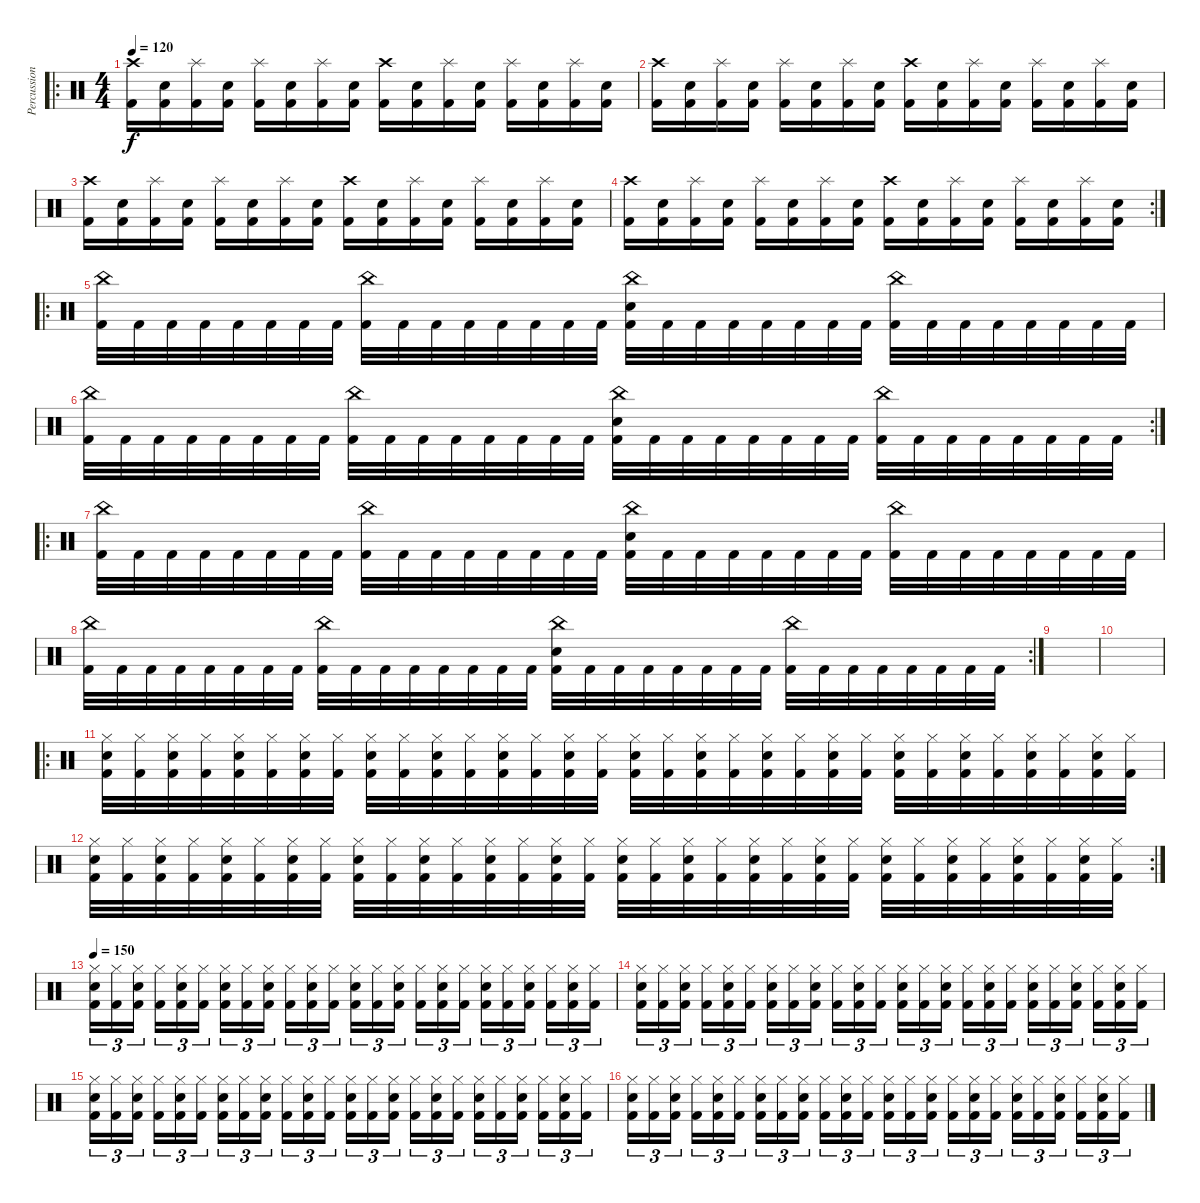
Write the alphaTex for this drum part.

\track ("Percussions" "Percussion") {instrument percussion}
\staff {score}
\articulation defaults
\ro
\ts (4 4)
\tempo 120
\clef neutral
\ks c
("Crash high (hit)" "Kick (hit) 2").16{dy f} ("Electric Snare (hit)" "Kick (hit) 2").16 ("Splash (hit)" "Kick (hit) 2").16 ("Electric Snare (hit)" "Kick (hit) 2").16 ("Splash (hit)" "Kick (hit) 2").16 ("Electric Snare (hit)" "Kick (hit) 2").16 ("Splash (hit)" "Kick (hit) 2").16 ("Electric Snare (hit)" "Kick (hit) 2").16 ("Crash high (hit)" "Kick (hit) 2").16 ("Electric Snare (hit)" "Kick (hit) 2").16 ("Splash (hit)" "Kick (hit) 2").16 ("Electric Snare (hit)" "Kick (hit) 2").16 ("Splash (hit)" "Kick (hit) 2").16 ("Electric Snare (hit)" "Kick (hit) 2").16 ("Splash (hit)" "Kick (hit) 2").16 ("Electric Snare (hit)" "Kick (hit) 2").16 |
("Crash high (hit)" "Kick (hit) 2").16 ("Electric Snare (hit)" "Kick (hit) 2").16 ("Splash (hit)" "Kick (hit) 2").16 ("Electric Snare (hit)" "Kick (hit) 2").16 ("Splash (hit)" "Kick (hit) 2").16 ("Electric Snare (hit)" "Kick (hit) 2").16 ("Splash (hit)" "Kick (hit) 2").16 ("Electric Snare (hit)" "Kick (hit) 2").16 ("Crash high (hit)" "Kick (hit) 2").16 ("Electric Snare (hit)" "Kick (hit) 2").16 ("Splash (hit)" "Kick (hit) 2").16 ("Electric Snare (hit)" "Kick (hit) 2").16 ("Splash (hit)" "Kick (hit) 2").16 ("Electric Snare (hit)" "Kick (hit) 2").16 ("Splash (hit)" "Kick (hit) 2").16 ("Electric Snare (hit)" "Kick (hit) 2").16 |
("Crash high (hit)" "Kick (hit) 2").16 ("Electric Snare (hit)" "Kick (hit) 2").16 ("Splash (hit)" "Kick (hit) 2").16 ("Electric Snare (hit)" "Kick (hit) 2").16 ("Splash (hit)" "Kick (hit) 2").16 ("Electric Snare (hit)" "Kick (hit) 2").16 ("Splash (hit)" "Kick (hit) 2").16 ("Electric Snare (hit)" "Kick (hit) 2").16 ("Crash high (hit)" "Kick (hit) 2").16 ("Electric Snare (hit)" "Kick (hit) 2").16 ("Splash (hit)" "Kick (hit) 2").16 ("Electric Snare (hit)" "Kick (hit) 2").16 ("Splash (hit)" "Kick (hit) 2").16 ("Electric Snare (hit)" "Kick (hit) 2").16 ("Splash (hit)" "Kick (hit) 2").16 ("Electric Snare (hit)" "Kick (hit) 2").16 |
\rc 2
("Crash high (hit)" "Kick (hit) 2").16 ("Electric Snare (hit)" "Kick (hit) 2").16 ("Splash (hit)" "Kick (hit) 2").16 ("Electric Snare (hit)" "Kick (hit) 2").16 ("Splash (hit)" "Kick (hit) 2").16 ("Electric Snare (hit)" "Kick (hit) 2").16 ("Splash (hit)" "Kick (hit) 2").16 ("Electric Snare (hit)" "Kick (hit) 2").16 ("Crash high (hit)" "Kick (hit) 2").16 ("Electric Snare (hit)" "Kick (hit) 2").16 ("Splash (hit)" "Kick (hit) 2").16 ("Electric Snare (hit)" "Kick (hit) 2").16 ("Splash (hit)" "Kick (hit) 2").16 ("Electric Snare (hit)" "Kick (hit) 2").16 ("Splash (hit)" "Kick (hit) 2").16 ("Electric Snare (hit)" "Kick (hit) 2").16 |
\ro
("China (hit)" "Kick (hit) 2").32 "Kick (hit) 2".32 "Kick (hit) 2".32 "Kick (hit) 2".32 "Kick (hit) 2".32 "Kick (hit) 2".32 "Kick (hit) 2".32 "Kick (hit) 2".32 ("China (hit)" "Kick (hit) 2").32 "Kick (hit) 2".32 "Kick (hit) 2".32 "Kick (hit) 2".32 "Kick (hit) 2".32 "Kick (hit) 2".32 "Kick (hit) 2".32 "Kick (hit) 2".32 ("China (hit)" "Electric Snare (hit)" "Kick (hit) 2").32 "Kick (hit) 2".32 "Kick (hit) 2".32 "Kick (hit) 2".32 "Kick (hit) 2".32 "Kick (hit) 2".32 "Kick (hit) 2".32 "Kick (hit) 2".32 ("China (hit)" "Kick (hit) 2").32 "Kick (hit) 2".32 "Kick (hit) 2".32 "Kick (hit) 2".32 "Kick (hit) 2".32 "Kick (hit) 2".32 "Kick (hit) 2".32 "Kick (hit) 2".32 |
\rc 2
("China (hit)" "Kick (hit) 2").32 "Kick (hit) 2".32 "Kick (hit) 2".32 "Kick (hit) 2".32 "Kick (hit) 2".32 "Kick (hit) 2".32 "Kick (hit) 2".32 "Kick (hit) 2".32 ("China (hit)" "Kick (hit) 2").32 "Kick (hit) 2".32 "Kick (hit) 2".32 "Kick (hit) 2".32 "Kick (hit) 2".32 "Kick (hit) 2".32 "Kick (hit) 2".32 "Kick (hit) 2".32 ("China (hit)" "Electric Snare (hit)" "Kick (hit) 2").32 "Kick (hit) 2".32 "Kick (hit) 2".32 "Kick (hit) 2".32 "Kick (hit) 2".32 "Kick (hit) 2".32 "Kick (hit) 2".32 "Kick (hit) 2".32 ("China (hit)" "Kick (hit) 2").32 "Kick (hit) 2".32 "Kick (hit) 2".32 "Kick (hit) 2".32 "Kick (hit) 2".32 "Kick (hit) 2".32 "Kick (hit) 2".32 "Kick (hit) 2".32 |
\ro
("China (hit)" "Kick (hit) 2").32 "Kick (hit) 2".32 "Kick (hit) 2".32 "Kick (hit) 2".32 "Kick (hit) 2".32 "Kick (hit) 2".32 "Kick (hit) 2".32 "Kick (hit) 2".32 ("China (hit)" "Kick (hit) 2").32 "Kick (hit) 2".32 "Kick (hit) 2".32 "Kick (hit) 2".32 "Kick (hit) 2".32 "Kick (hit) 2".32 "Kick (hit) 2".32 "Kick (hit) 2".32 ("China (hit)" "Electric Snare (hit)" "Kick (hit) 2").32 "Kick (hit) 2".32 "Kick (hit) 2".32 "Kick (hit) 2".32 "Kick (hit) 2".32 "Kick (hit) 2".32 "Kick (hit) 2".32 "Kick (hit) 2".32 ("China (hit)" "Kick (hit) 2").32 "Kick (hit) 2".32 "Kick (hit) 2".32 "Kick (hit) 2".32 "Kick (hit) 2".32 "Kick (hit) 2".32 "Kick (hit) 2".32 "Kick (hit) 2".32 |
\rc 2
("China (hit)" "Kick (hit) 2").32 "Kick (hit) 2".32 "Kick (hit) 2".32 "Kick (hit) 2".32 "Kick (hit) 2".32 "Kick (hit) 2".32 "Kick (hit) 2".32 "Kick (hit) 2".32 ("China (hit)" "Kick (hit) 2").32 "Kick (hit) 2".32 "Kick (hit) 2".32 "Kick (hit) 2".32 "Kick (hit) 2".32 "Kick (hit) 2".32 "Kick (hit) 2".32 "Kick (hit) 2".32 ("China (hit)" "Electric Snare (hit)" "Kick (hit) 2").32 "Kick (hit) 2".32 "Kick (hit) 2".32 "Kick (hit) 2".32 "Kick (hit) 2".32 "Kick (hit) 2".32 "Kick (hit) 2".32 "Kick (hit) 2".32 ("China (hit)" "Kick (hit) 2").32 "Kick (hit) 2".32 "Kick (hit) 2".32 "Kick (hit) 2".32 "Kick (hit) 2".32 "Kick (hit) 2".32 "Kick (hit) 2".32 "Kick (hit) 2".32 |
|
|
\ro
("Kick (hit) 2" "Electric Snare (hit)" "Hi-Hat (closed)").32 ("Kick (hit) 2" "Hi-Hat (closed)").32 ("Kick (hit) 2" "Electric Snare (hit)" "Hi-Hat (closed)").32 ("Kick (hit) 2" "Hi-Hat (closed)").32 ("Kick (hit) 2" "Electric Snare (hit)" "Hi-Hat (closed)").32 ("Kick (hit) 2" "Hi-Hat (closed)").32 ("Kick (hit) 2" "Electric Snare (hit)" "Hi-Hat (closed)").32 ("Kick (hit) 2" "Hi-Hat (closed)").32 ("Kick (hit) 2" "Electric Snare (hit)" "Hi-Hat (closed)").32 ("Kick (hit) 2" "Hi-Hat (closed)").32 ("Kick (hit) 2" "Electric Snare (hit)" "Hi-Hat (closed)").32 ("Kick (hit) 2" "Hi-Hat (closed)").32 ("Kick (hit) 2" "Electric Snare (hit)" "Hi-Hat (closed)").32 ("Kick (hit) 2" "Hi-Hat (closed)").32 ("Kick (hit) 2" "Electric Snare (hit)" "Hi-Hat (closed)").32 ("Kick (hit) 2" "Hi-Hat (closed)").32 ("Kick (hit) 2" "Electric Snare (hit)" "Hi-Hat (closed)").32 ("Kick (hit) 2" "Hi-Hat (closed)").32 ("Kick (hit) 2" "Electric Snare (hit)" "Hi-Hat (closed)").32 ("Kick (hit) 2" "Hi-Hat (closed)").32 ("Kick (hit) 2" "Electric Snare (hit)" "Hi-Hat (closed)").32 ("Kick (hit) 2" "Hi-Hat (closed)").32 ("Kick (hit) 2" "Electric Snare (hit)" "Hi-Hat (closed)").32 ("Kick (hit) 2" "Hi-Hat (closed)").32 ("Kick (hit) 2" "Electric Snare (hit)" "Hi-Hat (closed)").32 ("Kick (hit) 2" "Hi-Hat (closed)").32 ("Kick (hit) 2" "Electric Snare (hit)" "Hi-Hat (closed)").32 ("Kick (hit) 2" "Hi-Hat (closed)").32 ("Kick (hit) 2" "Electric Snare (hit)" "Hi-Hat (closed)").32 ("Kick (hit) 2" "Hi-Hat (closed)").32 ("Kick (hit) 2" "Electric Snare (hit)" "Hi-Hat (closed)").32 ("Kick (hit) 2" "Hi-Hat (closed)").32 |
\rc 2
("Kick (hit) 2" "Electric Snare (hit)" "Hi-Hat (closed)").32 ("Kick (hit) 2" "Hi-Hat (closed)").32 ("Kick (hit) 2" "Electric Snare (hit)" "Hi-Hat (closed)").32 ("Kick (hit) 2" "Hi-Hat (closed)").32 ("Kick (hit) 2" "Electric Snare (hit)" "Hi-Hat (closed)").32 ("Kick (hit) 2" "Hi-Hat (closed)").32 ("Kick (hit) 2" "Electric Snare (hit)" "Hi-Hat (closed)").32 ("Kick (hit) 2" "Hi-Hat (closed)").32 ("Kick (hit) 2" "Electric Snare (hit)" "Hi-Hat (closed)").32 ("Kick (hit) 2" "Hi-Hat (closed)").32 ("Kick (hit) 2" "Electric Snare (hit)" "Hi-Hat (closed)").32 ("Kick (hit) 2" "Hi-Hat (closed)").32 ("Kick (hit) 2" "Electric Snare (hit)" "Hi-Hat (closed)").32 ("Kick (hit) 2" "Hi-Hat (closed)").32 ("Kick (hit) 2" "Electric Snare (hit)" "Hi-Hat (closed)").32 ("Kick (hit) 2" "Hi-Hat (closed)").32 ("Kick (hit) 2" "Electric Snare (hit)" "Hi-Hat (closed)").32 ("Kick (hit) 2" "Hi-Hat (closed)").32 ("Kick (hit) 2" "Electric Snare (hit)" "Hi-Hat (closed)").32 ("Kick (hit) 2" "Hi-Hat (closed)").32 ("Kick (hit) 2" "Electric Snare (hit)" "Hi-Hat (closed)").32 ("Kick (hit) 2" "Hi-Hat (closed)").32 ("Kick (hit) 2" "Electric Snare (hit)" "Hi-Hat (closed)").32 ("Kick (hit) 2" "Hi-Hat (closed)").32 ("Kick (hit) 2" "Electric Snare (hit)" "Hi-Hat (closed)").32 ("Kick (hit) 2" "Hi-Hat (closed)").32 ("Kick (hit) 2" "Electric Snare (hit)" "Hi-Hat (closed)").32 ("Kick (hit) 2" "Hi-Hat (closed)").32 ("Kick (hit) 2" "Electric Snare (hit)" "Hi-Hat (closed)").32 ("Kick (hit) 2" "Hi-Hat (closed)").32 ("Kick (hit) 2" "Electric Snare (hit)" "Hi-Hat (closed)").32 ("Kick (hit) 2" "Hi-Hat (closed)").32 |
\tempo 150
("Kick (hit) 2" "Electric Snare (hit)" "Hi-Hat (closed)").16{tu (3 2)} ("Kick (hit) 2" "Hi-Hat (closed)").16{tu (3 2)} ("Kick (hit) 2" "Electric Snare (hit)" "Hi-Hat (closed)").16{tu (3 2) beam splitsecondary} ("Kick (hit) 2" "Hi-Hat (closed)").16{tu (3 2)} ("Kick (hit) 2" "Electric Snare (hit)" "Hi-Hat (closed)").16{tu (3 2)} ("Kick (hit) 2" "Hi-Hat (closed)").16{tu (3 2)} ("Kick (hit) 2" "Electric Snare (hit)" "Hi-Hat (closed)").16{tu (3 2)} ("Kick (hit) 2" "Hi-Hat (closed)").16{tu (3 2)} ("Kick (hit) 2" "Electric Snare (hit)" "Hi-Hat (closed)").16{tu (3 2) beam splitsecondary} ("Kick (hit) 2" "Hi-Hat (closed)").16{tu (3 2)} ("Kick (hit) 2" "Electric Snare (hit)" "Hi-Hat (closed)").16{tu (3 2)} ("Kick (hit) 2" "Hi-Hat (closed)").16{tu (3 2)} ("Kick (hit) 2" "Electric Snare (hit)" "Hi-Hat (closed)").16{tu (3 2)} ("Kick (hit) 2" "Hi-Hat (closed)").16{tu (3 2)} ("Kick (hit) 2" "Electric Snare (hit)" "Hi-Hat (closed)").16{tu (3 2) beam splitsecondary} ("Kick (hit) 2" "Hi-Hat (closed)").16{tu (3 2)} ("Kick (hit) 2" "Electric Snare (hit)" "Hi-Hat (closed)").16{tu (3 2)} ("Kick (hit) 2" "Hi-Hat (closed)").16{tu (3 2)} ("Kick (hit) 2" "Electric Snare (hit)" "Hi-Hat (closed)").16{tu (3 2)} ("Kick (hit) 2" "Hi-Hat (closed)").16{tu (3 2)} ("Kick (hit) 2" "Electric Snare (hit)" "Hi-Hat (closed)").16{tu (3 2) beam splitsecondary} ("Kick (hit) 2" "Hi-Hat (closed)").16{tu (3 2)} ("Kick (hit) 2" "Electric Snare (hit)" "Hi-Hat (closed)").16{tu (3 2)} ("Kick (hit) 2" "Hi-Hat (closed)").16{tu (3 2)} |
("Kick (hit) 2" "Electric Snare (hit)" "Hi-Hat (closed)").16{tu (3 2)} ("Kick (hit) 2" "Hi-Hat (closed)").16{tu (3 2)} ("Kick (hit) 2" "Electric Snare (hit)" "Hi-Hat (closed)").16{tu (3 2) beam splitsecondary} ("Kick (hit) 2" "Hi-Hat (closed)").16{tu (3 2)} ("Kick (hit) 2" "Electric Snare (hit)" "Hi-Hat (closed)").16{tu (3 2)} ("Kick (hit) 2" "Hi-Hat (closed)").16{tu (3 2)} ("Kick (hit) 2" "Electric Snare (hit)" "Hi-Hat (closed)").16{tu (3 2)} ("Kick (hit) 2" "Hi-Hat (closed)").16{tu (3 2)} ("Kick (hit) 2" "Electric Snare (hit)" "Hi-Hat (closed)").16{tu (3 2) beam splitsecondary} ("Kick (hit) 2" "Hi-Hat (closed)").16{tu (3 2)} ("Kick (hit) 2" "Electric Snare (hit)" "Hi-Hat (closed)").16{tu (3 2)} ("Kick (hit) 2" "Hi-Hat (closed)").16{tu (3 2)} ("Kick (hit) 2" "Electric Snare (hit)" "Hi-Hat (closed)").16{tu (3 2)} ("Kick (hit) 2" "Hi-Hat (closed)").16{tu (3 2)} ("Kick (hit) 2" "Electric Snare (hit)" "Hi-Hat (closed)").16{tu (3 2) beam splitsecondary} ("Kick (hit) 2" "Hi-Hat (closed)").16{tu (3 2)} ("Kick (hit) 2" "Electric Snare (hit)" "Hi-Hat (closed)").16{tu (3 2)} ("Kick (hit) 2" "Hi-Hat (closed)").16{tu (3 2)} ("Kick (hit) 2" "Electric Snare (hit)" "Hi-Hat (closed)").16{tu (3 2)} ("Kick (hit) 2" "Hi-Hat (closed)").16{tu (3 2)} ("Kick (hit) 2" "Electric Snare (hit)" "Hi-Hat (closed)").16{tu (3 2) beam splitsecondary} ("Kick (hit) 2" "Hi-Hat (closed)").16{tu (3 2)} ("Kick (hit) 2" "Electric Snare (hit)" "Hi-Hat (closed)").16{tu (3 2)} ("Kick (hit) 2" "Hi-Hat (closed)").16{tu (3 2)} |
("Kick (hit) 2" "Electric Snare (hit)" "Hi-Hat (closed)").16{tu (3 2)} ("Kick (hit) 2" "Hi-Hat (closed)").16{tu (3 2)} ("Kick (hit) 2" "Electric Snare (hit)" "Hi-Hat (closed)").16{tu (3 2) beam splitsecondary} ("Kick (hit) 2" "Hi-Hat (closed)").16{tu (3 2)} ("Kick (hit) 2" "Electric Snare (hit)" "Hi-Hat (closed)").16{tu (3 2)} ("Kick (hit) 2" "Hi-Hat (closed)").16{tu (3 2)} ("Kick (hit) 2" "Electric Snare (hit)" "Hi-Hat (closed)").16{tu (3 2)} ("Kick (hit) 2" "Hi-Hat (closed)").16{tu (3 2)} ("Kick (hit) 2" "Electric Snare (hit)" "Hi-Hat (closed)").16{tu (3 2) beam splitsecondary} ("Kick (hit) 2" "Hi-Hat (closed)").16{tu (3 2)} ("Kick (hit) 2" "Electric Snare (hit)" "Hi-Hat (closed)").16{tu (3 2)} ("Kick (hit) 2" "Hi-Hat (closed)").16{tu (3 2)} ("Kick (hit) 2" "Electric Snare (hit)" "Hi-Hat (closed)").16{tu (3 2)} ("Kick (hit) 2" "Hi-Hat (closed)").16{tu (3 2)} ("Kick (hit) 2" "Electric Snare (hit)" "Hi-Hat (closed)").16{tu (3 2) beam splitsecondary} ("Kick (hit) 2" "Hi-Hat (closed)").16{tu (3 2)} ("Kick (hit) 2" "Electric Snare (hit)" "Hi-Hat (closed)").16{tu (3 2)} ("Kick (hit) 2" "Hi-Hat (closed)").16{tu (3 2)} ("Kick (hit) 2" "Electric Snare (hit)" "Hi-Hat (closed)").16{tu (3 2)} ("Kick (hit) 2" "Hi-Hat (closed)").16{tu (3 2)} ("Kick (hit) 2" "Electric Snare (hit)" "Hi-Hat (closed)").16{tu (3 2) beam splitsecondary} ("Kick (hit) 2" "Hi-Hat (closed)").16{tu (3 2)} ("Kick (hit) 2" "Electric Snare (hit)" "Hi-Hat (closed)").16{tu (3 2)} ("Kick (hit) 2" "Hi-Hat (closed)").16{tu (3 2)} |
("Kick (hit) 2" "Electric Snare (hit)" "Hi-Hat (closed)").16{tu (3 2)} ("Kick (hit) 2" "Hi-Hat (closed)").16{tu (3 2)} ("Kick (hit) 2" "Electric Snare (hit)" "Hi-Hat (closed)").16{tu (3 2) beam splitsecondary} ("Kick (hit) 2" "Hi-Hat (closed)").16{tu (3 2)} ("Kick (hit) 2" "Electric Snare (hit)" "Hi-Hat (closed)").16{tu (3 2)} ("Kick (hit) 2" "Hi-Hat (closed)").16{tu (3 2)} ("Kick (hit) 2" "Electric Snare (hit)" "Hi-Hat (closed)").16{tu (3 2)} ("Kick (hit) 2" "Hi-Hat (closed)").16{tu (3 2)} ("Kick (hit) 2" "Electric Snare (hit)" "Hi-Hat (closed)").16{tu (3 2) beam splitsecondary} ("Kick (hit) 2" "Hi-Hat (closed)").16{tu (3 2)} ("Kick (hit) 2" "Electric Snare (hit)" "Hi-Hat (closed)").16{tu (3 2)} ("Kick (hit) 2" "Hi-Hat (closed)").16{tu (3 2)} ("Kick (hit) 2" "Electric Snare (hit)" "Hi-Hat (closed)").16{tu (3 2)} ("Kick (hit) 2" "Hi-Hat (closed)").16{tu (3 2)} ("Kick (hit) 2" "Electric Snare (hit)" "Hi-Hat (closed)").16{tu (3 2) beam splitsecondary} ("Kick (hit) 2" "Hi-Hat (closed)").16{tu (3 2)} ("Kick (hit) 2" "Electric Snare (hit)" "Hi-Hat (closed)").16{tu (3 2)} ("Kick (hit) 2" "Hi-Hat (closed)").16{tu (3 2)} ("Kick (hit) 2" "Electric Snare (hit)" "Hi-Hat (closed)").16{tu (3 2)} ("Kick (hit) 2" "Hi-Hat (closed)").16{tu (3 2)} ("Kick (hit) 2" "Electric Snare (hit)" "Hi-Hat (closed)").16{tu (3 2) beam splitsecondary} ("Kick (hit) 2" "Hi-Hat (closed)").16{tu (3 2)} ("Kick (hit) 2" "Electric Snare (hit)" "Hi-Hat (closed)").16{tu (3 2)} ("Kick (hit) 2" "Hi-Hat (closed)").16{tu (3 2)}
